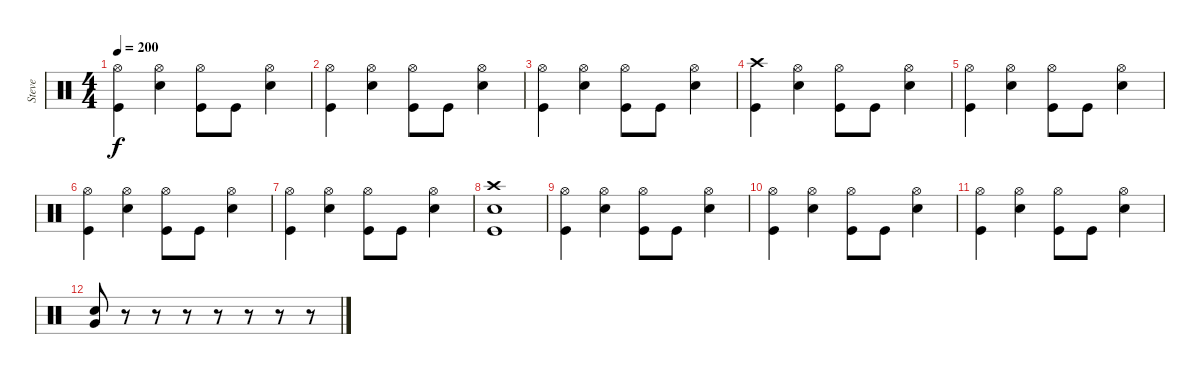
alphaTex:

\track ("Steve" "Steve") {instrument percussion}
\staff {score}
\articulation defaults
\ts (4 4)
\tempo 200
\clef neutral
\ks c
("Hi-Hat (open)" "Kick (hit)").4{dy f} ("Hi-Hat (open)" "Snare (hit) 2").4 ("Hi-Hat (open)" "Kick (hit)").8 "Kick (hit)".8 ("Hi-Hat (open)" "Snare (hit) 2").4 |
("Hi-Hat (open)" "Kick (hit)").4 ("Hi-Hat (open)" "Snare (hit) 2").4 ("Hi-Hat (open)" "Kick (hit)").8 "Kick (hit)".8 ("Hi-Hat (open)" "Snare (hit) 2").4 |
("Hi-Hat (open)" "Kick (hit)").4 ("Hi-Hat (open)" "Snare (hit) 2").4 ("Hi-Hat (open)" "Kick (hit)").8 "Kick (hit)".8 ("Hi-Hat (open)" "Snare (hit) 2").4 |
("Crash high (hit)" "Kick (hit)").4 ("Hi-Hat (open)" "Snare (hit) 2").4 ("Hi-Hat (open)" "Kick (hit)").8 "Kick (hit)".8 ("Hi-Hat (open)" "Snare (hit) 2").4 |
("Hi-Hat (open)" "Kick (hit)").4 ("Hi-Hat (open)" "Snare (hit) 2").4 ("Hi-Hat (open)" "Kick (hit)").8 "Kick (hit)".8 ("Hi-Hat (open)" "Snare (hit) 2").4 |
("Hi-Hat (open)" "Kick (hit)").4 ("Hi-Hat (open)" "Snare (hit) 2").4 ("Hi-Hat (open)" "Kick (hit)").8 "Kick (hit)".8 ("Hi-Hat (open)" "Snare (hit) 2").4 |
("Hi-Hat (open)" "Kick (hit)").4 ("Hi-Hat (open)" "Snare (hit) 2").4 ("Hi-Hat (open)" "Kick (hit)").8 "Kick (hit)".8 ("Hi-Hat (open)" "Snare (hit) 2").4 |
("Crash high (hit)" "Snare (hit) 2" "Kick (hit)").1 |
("Hi-Hat (open)" "Kick (hit)").4 ("Hi-Hat (open)" "Snare (hit) 2").4 ("Hi-Hat (open)" "Kick (hit)").8 "Kick (hit)".8 ("Hi-Hat (open)" "Snare (hit) 2").4 |
("Hi-Hat (open)" "Kick (hit)").4 ("Hi-Hat (open)" "Snare (hit) 2").4 ("Hi-Hat (open)" "Kick (hit)").8 "Kick (hit)".8 ("Hi-Hat (open)" "Snare (hit) 2").4 |
("Hi-Hat (open)" "Kick (hit)").4 ("Hi-Hat (open)" "Snare (hit) 2").4 ("Hi-Hat (open)" "Kick (hit)").8 "Kick (hit)".8 ("Hi-Hat (open)" "Snare (hit) 2").4 |
("Snare (hit) 2" "Very Low Tom (hit)").8 r.8 r.8 r.8 r.8 r.8 r.8 r.8
